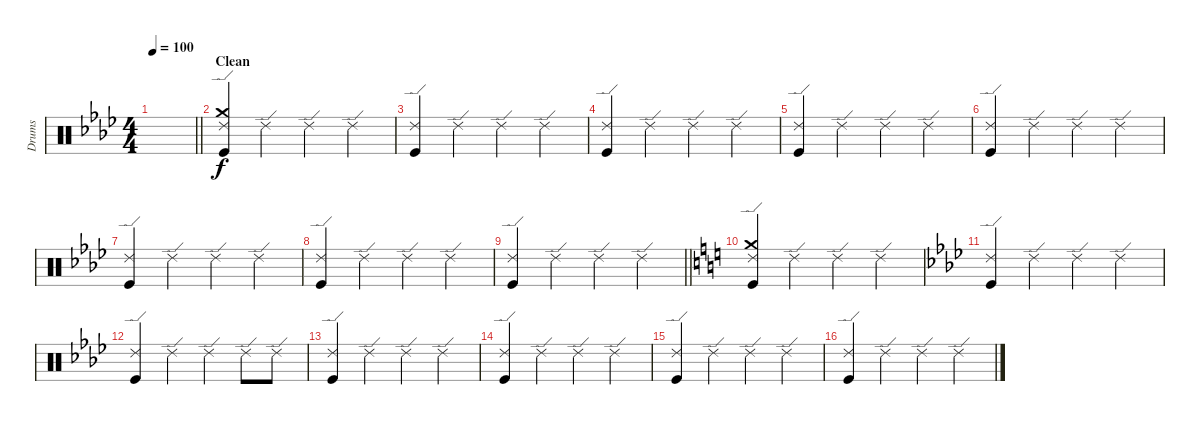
\track ("Drums" "Drums") {instrument percussion}
\staff {score}
\articulation defaults
\ts (4 4)
\tempo 100
\clef neutral
\barLineRight lightlight
\ks ab
|
\section ("" "Clean")
("Ride (edge) 2" "Crash medium (hit)" "Kick (hit)").4 "Ride (edge) 2".4 "Ride (edge) 2".4 "Ride (edge) 2".4 |
("Ride (edge) 2" "Kick (hit)").4 "Ride (edge) 2".4 "Ride (edge) 2".4 "Ride (edge) 2".4 |
("Ride (edge) 2" "Kick (hit)").4 "Ride (edge) 2".4 "Ride (edge) 2".4 "Ride (edge) 2".4 |
("Ride (edge) 2" "Kick (hit)").4 "Ride (edge) 2".4 "Ride (edge) 2".4 "Ride (edge) 2".4 |
("Ride (edge) 2" "Kick (hit)").4 "Ride (edge) 2".4 "Ride (edge) 2".4 "Ride (edge) 2".4 |
("Ride (edge) 2" "Kick (hit)").4 "Ride (edge) 2".4 "Ride (edge) 2".4 "Ride (edge) 2".4 |
("Ride (edge) 2" "Kick (hit)").4 "Ride (edge) 2".4 "Ride (edge) 2".4 "Ride (edge) 2".4 |
\barLineRight lightlight
("Ride (edge) 2" "Kick (hit)").4 "Ride (edge) 2".4 "Ride (edge) 2".4 "Ride (edge) 2".4 |
\ks c
("Ride (edge) 2" "Crash medium (hit)" "Kick (hit)").4 "Ride (edge) 2".4 "Ride (edge) 2".4 "Ride (edge) 2".4 |
\ks ab
("Ride (edge) 2" "Kick (hit)").4 "Ride (edge) 2".4 "Ride (edge) 2".4 "Ride (edge) 2".4 |
("Ride (edge) 2" "Kick (hit)").4 "Ride (edge) 2".4 "Ride (edge) 2".4 "Ride (edge) 2".8 "Ride (edge) 2".8 |
("Ride (edge) 2" "Kick (hit)").4 "Ride (edge) 2".4 "Ride (edge) 2".4 "Ride (edge) 2".4 |
("Ride (edge) 2" "Kick (hit)").4 "Ride (edge) 2".4 "Ride (edge) 2".4 "Ride (edge) 2".4 |
("Ride (edge) 2" "Kick (hit)").4 "Ride (edge) 2".4 "Ride (edge) 2".4 "Ride (edge) 2".4 |
("Ride (edge) 2" "Kick (hit)").4 "Ride (edge) 2".4 "Ride (edge) 2".4 "Ride (edge) 2".4
